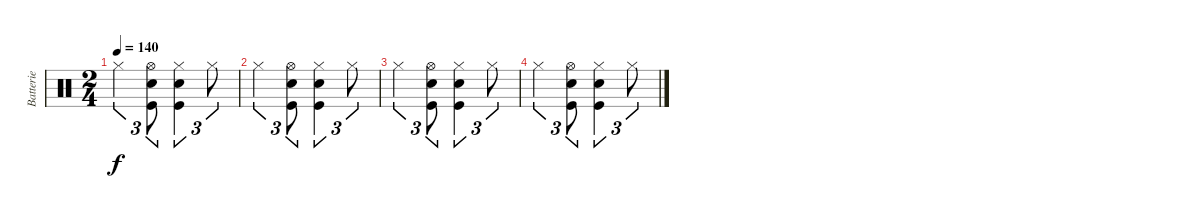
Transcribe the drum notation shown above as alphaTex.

\track ("Batterie" "Batterie") {instrument percussion}
\staff {score}
\articulation defaults
\ts (2 4)
\tempo 140
\clef neutral
\ks c "Hi-Hat (closed)".4{tu (3 2) dy f}
("Hi-Hat (open)" "Snare (hit) 2" "Kick (hit)").8{tu (3 2)} ("Hi-Hat (closed)" "Snare (hit) 2" "Kick (hit)").4{tu (3 2)} "Hi-Hat (closed)".8{tu (3 2)} |
"Hi-Hat (closed)".4{tu (3 2)} ("Hi-Hat (open)" "Snare (hit) 2" "Kick (hit)").8{tu (3 2)} ("Hi-Hat (closed)" "Snare (hit) 2" "Kick (hit)").4{tu (3 2)} "Hi-Hat (closed)".8{tu (3 2)} |
"Hi-Hat (closed)".4{tu (3 2)} ("Hi-Hat (open)" "Snare (hit) 2" "Kick (hit)").8{tu (3 2)} ("Hi-Hat (closed)" "Snare (hit) 2" "Kick (hit)").4{tu (3 2)} "Hi-Hat (closed)".8{tu (3 2)} |
"Hi-Hat (closed)".4{tu (3 2)} ("Hi-Hat (open)" "Snare (hit) 2" "Kick (hit)").8{tu (3 2)} ("Hi-Hat (closed)" "Snare (hit) 2" "Kick (hit)").4{tu (3 2)} "Hi-Hat (closed)".8{tu (3 2)}
